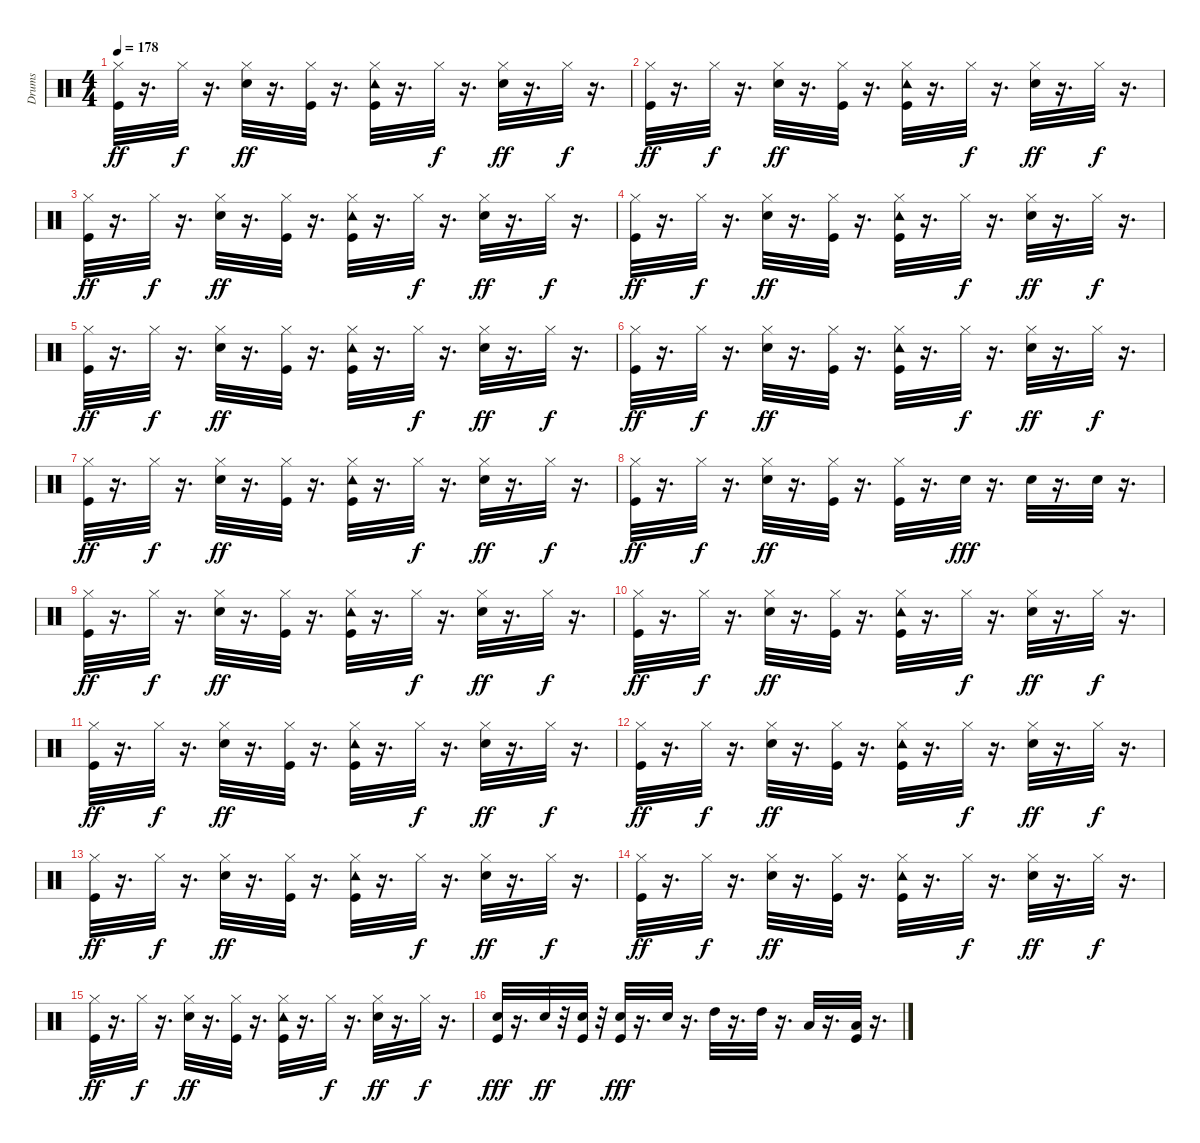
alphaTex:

\track ("Drums" "Drums") {instrument percussion}
\staff {score}
\articulation defaults
\ts (4 4)
\tempo 178
\clef neutral
\ks c
("Kick (hit)" "Hi-Hat (closed)").32{dy ff} r.16{d} "Hi-Hat (closed)".32{dy f} r.16{d} ("Snare (hit) 2" "Hi-Hat (closed)").32{dy ff} r.16{d} ("Hi-Hat (closed)" "Kick (hit)").32 r.16{d} ("Kick (hit)" "Tambourine (hit)" "Hi-Hat (closed)").32 r.16{d} "Hi-Hat (closed)".32{dy f} r.16{d} ("Snare (hit) 2" "Hi-Hat (closed)").32{dy ff} r.16{d} "Hi-Hat (closed)".32{dy f} r.16{d} |
("Kick (hit)" "Hi-Hat (closed)").32{dy ff} r.16{d} "Hi-Hat (closed)".32{dy f} r.16{d} ("Snare (hit) 2" "Hi-Hat (closed)").32{dy ff} r.16{d} ("Hi-Hat (closed)" "Kick (hit)").32 r.16{d} ("Kick (hit)" "Tambourine (hit)" "Hi-Hat (closed)").32 r.16{d} "Hi-Hat (closed)".32{dy f} r.16{d} ("Snare (hit) 2" "Hi-Hat (closed)").32{dy ff} r.16{d} "Hi-Hat (closed)".32{dy f} r.16{d} |
("Kick (hit)" "Hi-Hat (closed)").32{dy ff} r.16{d} "Hi-Hat (closed)".32{dy f} r.16{d} ("Snare (hit) 2" "Hi-Hat (closed)").32{dy ff} r.16{d} ("Hi-Hat (closed)" "Kick (hit)").32 r.16{d} ("Kick (hit)" "Tambourine (hit)" "Hi-Hat (closed)").32 r.16{d} "Hi-Hat (closed)".32{dy f} r.16{d} ("Snare (hit) 2" "Hi-Hat (closed)").32{dy ff} r.16{d} "Hi-Hat (closed)".32{dy f} r.16{d} |
("Kick (hit)" "Hi-Hat (closed)").32{dy ff} r.16{d} "Hi-Hat (closed)".32{dy f} r.16{d} ("Snare (hit) 2" "Hi-Hat (closed)").32{dy ff} r.16{d} ("Hi-Hat (closed)" "Kick (hit)").32 r.16{d} ("Kick (hit)" "Tambourine (hit)" "Hi-Hat (closed)").32 r.16{d} "Hi-Hat (closed)".32{dy f} r.16{d} ("Snare (hit) 2" "Hi-Hat (closed)").32{dy ff} r.16{d} "Hi-Hat (closed)".32{dy f} r.16{d} |
("Kick (hit)" "Hi-Hat (closed)").32{dy ff} r.16{d} "Hi-Hat (closed)".32{dy f} r.16{d} ("Snare (hit) 2" "Hi-Hat (closed)").32{dy ff} r.16{d} ("Hi-Hat (closed)" "Kick (hit)").32 r.16{d} ("Kick (hit)" "Tambourine (hit)" "Hi-Hat (closed)").32 r.16{d} "Hi-Hat (closed)".32{dy f} r.16{d} ("Snare (hit) 2" "Hi-Hat (closed)").32{dy ff} r.16{d} "Hi-Hat (closed)".32{dy f} r.16{d} |
("Kick (hit)" "Hi-Hat (closed)").32{dy ff} r.16{d} "Hi-Hat (closed)".32{dy f} r.16{d} ("Snare (hit) 2" "Hi-Hat (closed)").32{dy ff} r.16{d} ("Hi-Hat (closed)" "Kick (hit)").32 r.16{d} ("Kick (hit)" "Tambourine (hit)" "Hi-Hat (closed)").32 r.16{d} "Hi-Hat (closed)".32{dy f} r.16{d} ("Snare (hit) 2" "Hi-Hat (closed)").32{dy ff} r.16{d} "Hi-Hat (closed)".32{dy f} r.16{d} |
("Kick (hit)" "Hi-Hat (closed)").32{dy ff} r.16{d} "Hi-Hat (closed)".32{dy f} r.16{d} ("Snare (hit) 2" "Hi-Hat (closed)").32{dy ff} r.16{d} ("Hi-Hat (closed)" "Kick (hit)").32 r.16{d} ("Kick (hit)" "Tambourine (hit)" "Hi-Hat (closed)").32 r.16{d} "Hi-Hat (closed)".32{dy f} r.16{d} ("Snare (hit) 2" "Hi-Hat (closed)").32{dy ff} r.16{d} "Hi-Hat (closed)".32{dy f} r.16{d} |
("Kick (hit)" "Hi-Hat (closed)").32{dy ff} r.16{d} "Hi-Hat (closed)".32{dy f} r.16{d} ("Snare (hit) 2" "Hi-Hat (closed)").32{dy ff} r.16{d} ("Hi-Hat (closed)" "Kick (hit)").32 r.16{d} ("Kick (hit)" "Hi-Hat (closed)").32 r.16{d} "Snare (hit) 2".32{dy fff} r.16{d} "Snare (hit) 2".32 r.16{d} "Snare (hit) 2".32 r.16{d} |
("Kick (hit)" "Hi-Hat (closed)").32{dy ff} r.16{d} "Hi-Hat (closed)".32{dy f} r.16{d} ("Snare (hit) 2" "Hi-Hat (closed)").32{dy ff} r.16{d} ("Hi-Hat (closed)" "Kick (hit)").32 r.16{d} ("Kick (hit)" "Tambourine (hit)" "Hi-Hat (closed)").32 r.16{d} "Hi-Hat (closed)".32{dy f} r.16{d} ("Snare (hit) 2" "Hi-Hat (closed)").32{dy ff} r.16{d} "Hi-Hat (closed)".32{dy f} r.16{d} |
("Kick (hit)" "Hi-Hat (closed)").32{dy ff} r.16{d} "Hi-Hat (closed)".32{dy f} r.16{d} ("Snare (hit) 2" "Hi-Hat (closed)").32{dy ff} r.16{d} ("Hi-Hat (closed)" "Kick (hit)").32 r.16{d} ("Kick (hit)" "Tambourine (hit)" "Hi-Hat (closed)").32 r.16{d} "Hi-Hat (closed)".32{dy f} r.16{d} ("Snare (hit) 2" "Hi-Hat (closed)").32{dy ff} r.16{d} "Hi-Hat (closed)".32{dy f} r.16{d} |
("Kick (hit)" "Hi-Hat (closed)").32{dy ff} r.16{d} "Hi-Hat (closed)".32{dy f} r.16{d} ("Snare (hit) 2" "Hi-Hat (closed)").32{dy ff} r.16{d} ("Hi-Hat (closed)" "Kick (hit)").32 r.16{d} ("Kick (hit)" "Tambourine (hit)" "Hi-Hat (closed)").32 r.16{d} "Hi-Hat (closed)".32{dy f} r.16{d} ("Snare (hit) 2" "Hi-Hat (closed)").32{dy ff} r.16{d} "Hi-Hat (closed)".32{dy f} r.16{d} |
("Kick (hit)" "Hi-Hat (closed)").32{dy ff} r.16{d} "Hi-Hat (closed)".32{dy f} r.16{d} ("Snare (hit) 2" "Hi-Hat (closed)").32{dy ff} r.16{d} ("Hi-Hat (closed)" "Kick (hit)").32 r.16{d} ("Kick (hit)" "Tambourine (hit)" "Hi-Hat (closed)").32 r.16{d} "Hi-Hat (closed)".32{dy f} r.16{d} ("Snare (hit) 2" "Hi-Hat (closed)").32{dy ff} r.16{d} "Hi-Hat (closed)".32{dy f} r.16{d} |
("Kick (hit)" "Hi-Hat (closed)").32{dy ff} r.16{d} "Hi-Hat (closed)".32{dy f} r.16{d} ("Snare (hit) 2" "Hi-Hat (closed)").32{dy ff} r.16{d} ("Hi-Hat (closed)" "Kick (hit)").32 r.16{d} ("Kick (hit)" "Tambourine (hit)" "Hi-Hat (closed)").32 r.16{d} "Hi-Hat (closed)".32{dy f} r.16{d} ("Snare (hit) 2" "Hi-Hat (closed)").32{dy ff} r.16{d} "Hi-Hat (closed)".32{dy f} r.16{d} |
("Kick (hit)" "Hi-Hat (closed)").32{dy ff} r.16{d} "Hi-Hat (closed)".32{dy f} r.16{d} ("Snare (hit) 2" "Hi-Hat (closed)").32{dy ff} r.16{d} ("Hi-Hat (closed)" "Kick (hit)").32 r.16{d} ("Kick (hit)" "Tambourine (hit)" "Hi-Hat (closed)").32 r.16{d} "Hi-Hat (closed)".32{dy f} r.16{d} ("Snare (hit) 2" "Hi-Hat (closed)").32{dy ff} r.16{d} "Hi-Hat (closed)".32{dy f} r.16{d} |
("Kick (hit)" "Hi-Hat (closed)").32{dy ff} r.16{d} "Hi-Hat (closed)".32{dy f} r.16{d} ("Snare (hit) 2" "Hi-Hat (closed)").32{dy ff} r.16{d} ("Hi-Hat (closed)" "Kick (hit)").32 r.16{d} ("Kick (hit)" "Tambourine (hit)" "Hi-Hat (closed)").32 r.16{d} "Hi-Hat (closed)".32{dy f} r.16{d} ("Snare (hit) 2" "Hi-Hat (closed)").32{dy ff} r.16{d} "Hi-Hat (closed)".32{dy f} r.16{d} |
("Kick (hit)" "Snare (hit) 2").32{dy fff} r.16{d} "Snare (hit) 2".32{dy ff} r.32 ("Kick (hit)" "Snare (hit) 2").32 r.32 ("Kick (hit)" "Snare (hit) 2").32{dy fff} r.16{d} "Snare (hit) 2".32 r.16{d} "High Tom (hit)".32 r.16{d} "High Tom (hit)".32 r.16{d} "Low Tom (hit)".32 r.16{d} ("Kick (hit)" "Low Tom (hit)").32 r.16{d}
